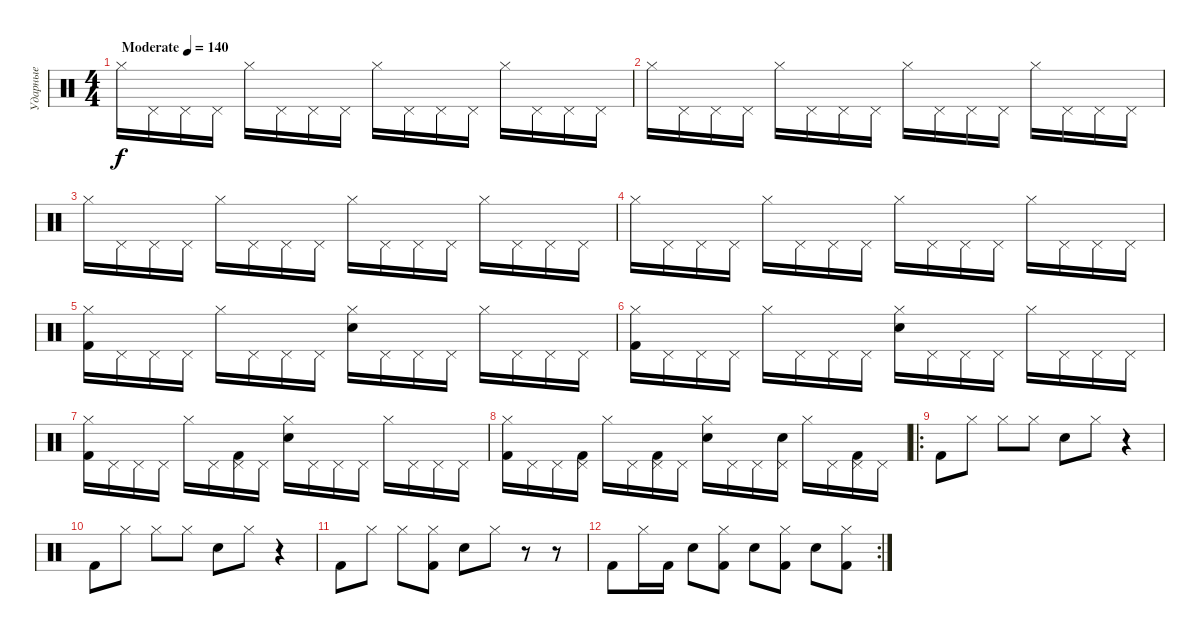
\track ("Ударные" "Ударные") {instrument percussion}
\staff {score}
\articulation defaults
\ts (4 4)
\tempo (140 "Moderate")
\clef neutral
\ks c "Hi-Hat (closed)".16{dy f} "Pedal Hi-Hat (hit)".16 "Pedal Hi-Hat (hit)".16 "Pedal Hi-Hat (hit)".16 "Hi-Hat (closed)".16 "Pedal Hi-Hat (hit)".16 "Pedal Hi-Hat (hit)".16 "Pedal Hi-Hat (hit)".16 "Hi-Hat (closed)".16 "Pedal Hi-Hat (hit)".16 "Pedal Hi-Hat (hit)".16 "Pedal Hi-Hat (hit)".16 "Hi-Hat (closed)".16 "Pedal Hi-Hat (hit)".16 "Pedal Hi-Hat (hit)".16 "Pedal Hi-Hat (hit)".16
|
"Hi-Hat (closed)".16 "Pedal Hi-Hat (hit)".16 "Pedal Hi-Hat (hit)".16 "Pedal Hi-Hat (hit)".16 "Hi-Hat (closed)".16 "Pedal Hi-Hat (hit)".16 "Pedal Hi-Hat (hit)".16 "Pedal Hi-Hat (hit)".16 "Hi-Hat (closed)".16 "Pedal Hi-Hat (hit)".16 "Pedal Hi-Hat (hit)".16 "Pedal Hi-Hat (hit)".16 "Hi-Hat (closed)".16 "Pedal Hi-Hat (hit)".16 "Pedal Hi-Hat (hit)".16 "Pedal Hi-Hat (hit)".16 |
"Hi-Hat (closed)".16 "Pedal Hi-Hat (hit)".16 "Pedal Hi-Hat (hit)".16 "Pedal Hi-Hat (hit)".16 "Hi-Hat (closed)".16 "Pedal Hi-Hat (hit)".16 "Pedal Hi-Hat (hit)".16 "Pedal Hi-Hat (hit)".16 "Hi-Hat (closed)".16 "Pedal Hi-Hat (hit)".16 "Pedal Hi-Hat (hit)".16 "Pedal Hi-Hat (hit)".16 "Hi-Hat (closed)".16 "Pedal Hi-Hat (hit)".16 "Pedal Hi-Hat (hit)".16 "Pedal Hi-Hat (hit)".16 |
"Hi-Hat (closed)".16 "Pedal Hi-Hat (hit)".16 "Pedal Hi-Hat (hit)".16 "Pedal Hi-Hat (hit)".16 "Hi-Hat (closed)".16 "Pedal Hi-Hat (hit)".16 "Pedal Hi-Hat (hit)".16 "Pedal Hi-Hat (hit)".16 "Hi-Hat (closed)".16 "Pedal Hi-Hat (hit)".16 "Pedal Hi-Hat (hit)".16 "Pedal Hi-Hat (hit)".16 "Hi-Hat (closed)".16 "Pedal Hi-Hat (hit)".16 "Pedal Hi-Hat (hit)".16 "Pedal Hi-Hat (hit)".16 |
("Hi-Hat (closed)" "Kick (hit) 2").16 "Pedal Hi-Hat (hit)".16 "Pedal Hi-Hat (hit)".16 "Pedal Hi-Hat (hit)".16 "Hi-Hat (closed)".16 "Pedal Hi-Hat (hit)".16 "Pedal Hi-Hat (hit)".16 "Pedal Hi-Hat (hit)".16 ("Hi-Hat (closed)" "Snare (hit) 2").16 "Pedal Hi-Hat (hit)".16 "Pedal Hi-Hat (hit)".16 "Pedal Hi-Hat (hit)".16 "Hi-Hat (closed)".16 "Pedal Hi-Hat (hit)".16 "Pedal Hi-Hat (hit)".16 "Pedal Hi-Hat (hit)".16 |
("Hi-Hat (closed)" "Kick (hit) 2").16 "Pedal Hi-Hat (hit)".16 "Pedal Hi-Hat (hit)".16 "Pedal Hi-Hat (hit)".16 "Hi-Hat (closed)".16 "Pedal Hi-Hat (hit)".16 "Pedal Hi-Hat (hit)".16 "Pedal Hi-Hat (hit)".16 ("Hi-Hat (closed)" "Snare (hit) 2").16 "Pedal Hi-Hat (hit)".16 "Pedal Hi-Hat (hit)".16 "Pedal Hi-Hat (hit)".16 "Hi-Hat (closed)".16 "Pedal Hi-Hat (hit)".16 "Pedal Hi-Hat (hit)".16 "Pedal Hi-Hat (hit)".16 |
("Hi-Hat (closed)" "Kick (hit) 2").16 "Pedal Hi-Hat (hit)".16 "Pedal Hi-Hat (hit)".16 "Pedal Hi-Hat (hit)".16 "Hi-Hat (closed)".16 "Pedal Hi-Hat (hit)".16 ("Pedal Hi-Hat (hit)" "Kick (hit) 2").16 "Pedal Hi-Hat (hit)".16 ("Hi-Hat (closed)" "Snare (hit) 2").16 "Pedal Hi-Hat (hit)".16 "Pedal Hi-Hat (hit)".16 "Pedal Hi-Hat (hit)".16 "Hi-Hat (closed)".16 "Pedal Hi-Hat (hit)".16 "Pedal Hi-Hat (hit)".16 "Pedal Hi-Hat (hit)".16 |
("Hi-Hat (closed)" "Kick (hit) 2").16 "Pedal Hi-Hat (hit)".16 "Pedal Hi-Hat (hit)".16 ("Pedal Hi-Hat (hit)" "Kick (hit) 2").16 "Hi-Hat (closed)".16 "Pedal Hi-Hat (hit)".16 ("Pedal Hi-Hat (hit)" "Kick (hit) 2").16 "Pedal Hi-Hat (hit)".16 ("Hi-Hat (closed)" "Snare (hit) 2").16 "Pedal Hi-Hat (hit)".16 "Pedal Hi-Hat (hit)".16 ("Pedal Hi-Hat (hit)" "Snare (hit) 2").16 "Hi-Hat (closed)".16 "Pedal Hi-Hat (hit)".16 ("Pedal Hi-Hat (hit)" "Kick (hit) 2").16 "Pedal Hi-Hat (hit)".16 |
\ro "Kick (hit) 2".8 "Hi-Hat (closed)".8 "Hi-Hat (closed)".8 "Hi-Hat (closed)".8 "Snare (hit) 2".8 "Hi-Hat (closed)".8
r.4 |
"Kick (hit) 2".8 "Hi-Hat (closed)".8 "Hi-Hat (closed)".8 "Hi-Hat (closed)".8 "Snare (hit) 2".8 "Hi-Hat (closed)".8 r.4 |
"Kick (hit) 2".8 "Hi-Hat (closed)".8 "Hi-Hat (closed)".8 ("Hi-Hat (closed)" "Kick (hit) 2").8 "Snare (hit) 2".8 "Hi-Hat (closed)".8 r.8 r.8 |
\rc 2 "Kick (hit) 2".8 "Hi-Hat (closed)".16 "Kick (hit) 2".16 "Snare (hit) 2".8
("Hi-Hat (closed)" "Kick (hit) 2").8 "Snare (hit) 2".8 ("Hi-Hat (closed)" "Kick (hit) 2").8 "Snare (hit) 2".8 ("Hi-Hat (closed)" "Kick (hit) 2").8
